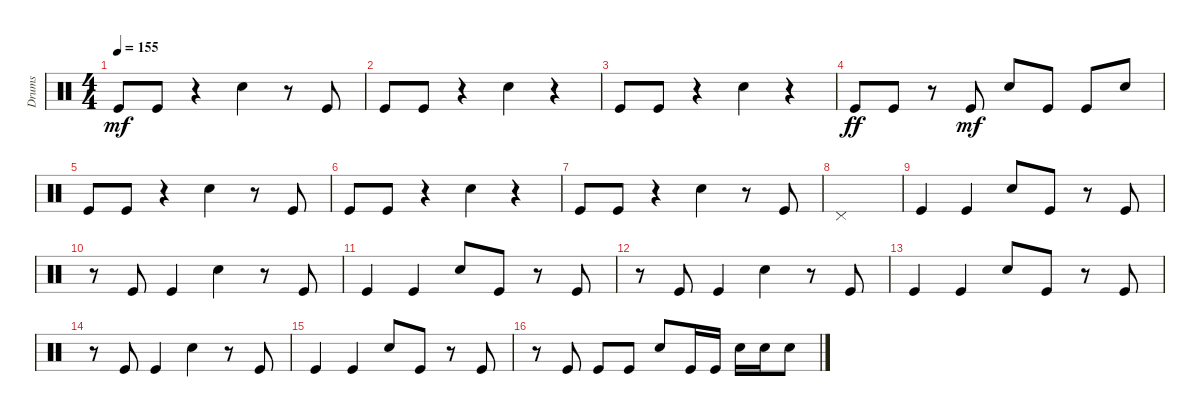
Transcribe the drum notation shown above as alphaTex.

\track ("Drums" "Drums") {instrument percussion}
\staff {score}
\articulation defaults
\ts (4 4)
\tempo 155
\clef neutral
\ks c "Kick (hit)".8{dy mf} "Kick (hit)".8
r.4 "Snare (hit) 2".4 r.8 "Kick (hit)".8 |
"Kick (hit)".8 "Kick (hit)".8 r.4 "Snare (hit) 2".4 r.4 |
"Kick (hit)".8 "Kick (hit)".8 r.4 "Snare (hit) 2".4 r.4 |
"Kick (hit)".8{dy ff} "Kick (hit)".8 r.8 "Kick (hit)".8{dy mf} "Snare (hit) 2".8 "Kick (hit)".8 "Kick (hit)".8 "Snare (hit) 2".8 |
"Kick (hit)".8 "Kick (hit)".8 r.4 "Snare (hit) 2".4 r.8 "Kick (hit)".8 |
"Kick (hit)".8 "Kick (hit)".8 r.4 "Snare (hit) 2".4 r.4 |
"Kick (hit)".8 "Kick (hit)".8 r.4 "Snare (hit) 2".4 r.8 "Kick (hit)".8 |
"Pedal Hi-Hat (hit)".1 |
"Kick (hit)".4 "Kick (hit)".4 "Snare (hit) 2".8 "Kick (hit)".8 r.8 "Kick (hit)".8 |
r.8 "Kick (hit)".8 "Kick (hit)".4 "Snare (hit) 2".4 r.8 "Kick (hit)".8 |
"Kick (hit)".4 "Kick (hit)".4 "Snare (hit) 2".8 "Kick (hit)".8 r.8 "Kick (hit)".8 |
r.8 "Kick (hit)".8 "Kick (hit)".4 "Snare (hit) 2".4 r.8 "Kick (hit)".8 |
"Kick (hit)".4 "Kick (hit)".4 "Snare (hit) 2".8 "Kick (hit)".8 r.8 "Kick (hit)".8 |
r.8 "Kick (hit)".8 "Kick (hit)".4 "Snare (hit) 2".4 r.8 "Kick (hit)".8 |
"Kick (hit)".4 "Kick (hit)".4 "Snare (hit) 2".8 "Kick (hit)".8 r.8 "Kick (hit)".8 |
r.8 "Kick (hit)".8 "Kick (hit)".8 "Kick (hit)".8 "Snare (hit) 2".8 "Kick (hit)".16 "Kick (hit)".16 "Snare (hit) 2".16 "Snare (hit) 2".16 "Snare (hit) 2".8
